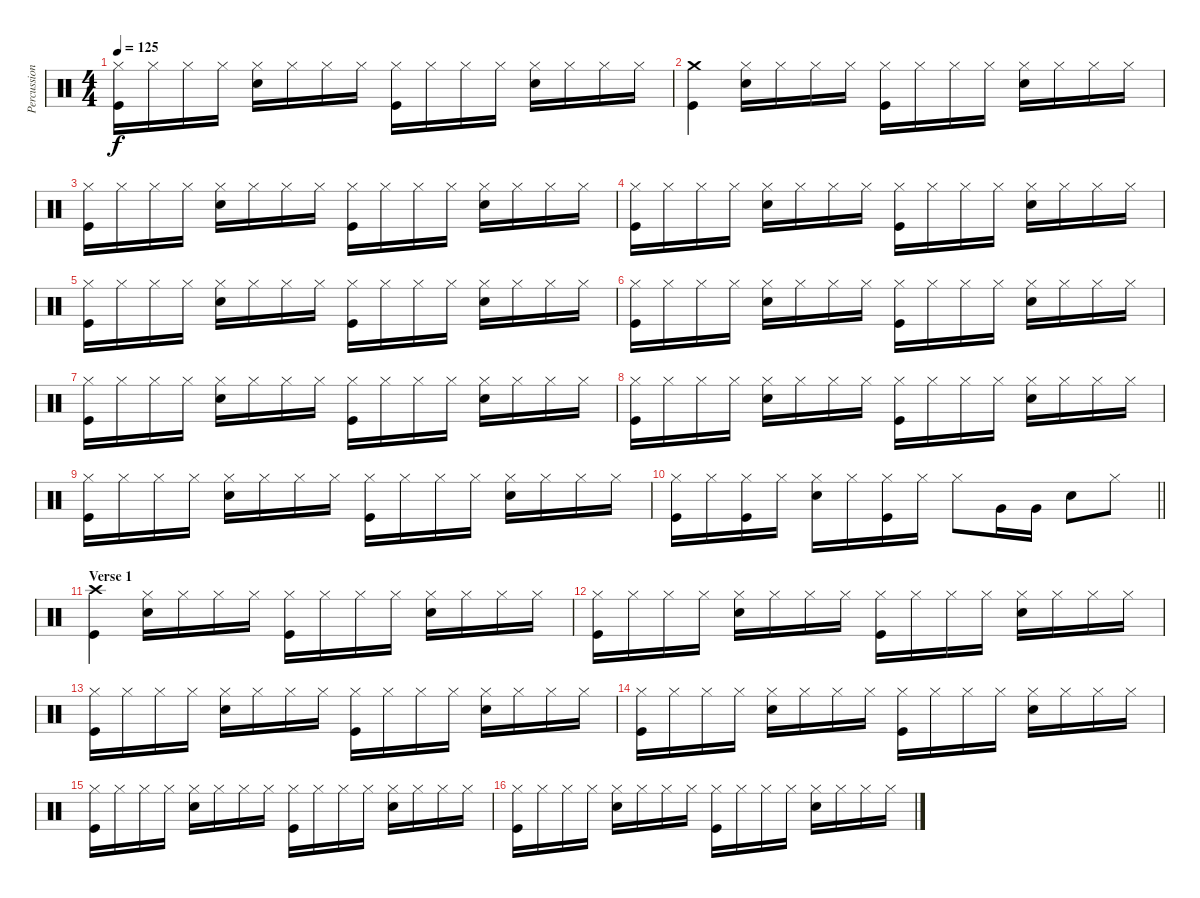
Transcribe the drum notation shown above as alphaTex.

\track ("Percussion" "Percussion") {instrument percussion}
\staff {score}
\articulation defaults
\ts (4 4)
\tempo 125
\clef neutral
\ks c
("Kick (hit)" "Hi-Hat (closed)").16{dy f} "Hi-Hat (closed)".16 "Hi-Hat (closed)".16 "Hi-Hat (closed)".16 ("Hi-Hat (closed)" "Snare (hit) 2").16 "Hi-Hat (closed)".16 "Hi-Hat (closed)".16 "Hi-Hat (closed)".16 ("Kick (hit)" "Hi-Hat (closed)").16 "Hi-Hat (closed)".16 "Hi-Hat (closed)".16 "Hi-Hat (closed)".16 ("Hi-Hat (closed)" "Snare (hit) 2").16 "Hi-Hat (closed)".16 "Hi-Hat (closed)".16 "Hi-Hat (closed)".16 |
("Kick (hit)" "Crash medium (hit)").4 ("Hi-Hat (closed)" "Snare (hit) 2").16 "Hi-Hat (closed)".16 "Hi-Hat (closed)".16 "Hi-Hat (closed)".16 ("Kick (hit)" "Hi-Hat (closed)").16 "Hi-Hat (closed)".16 "Hi-Hat (closed)".16 "Hi-Hat (closed)".16 ("Hi-Hat (closed)" "Snare (hit) 2").16 "Hi-Hat (closed)".16 "Hi-Hat (closed)".16 "Hi-Hat (closed)".16 |
("Kick (hit)" "Hi-Hat (closed)").16 "Hi-Hat (closed)".16 "Hi-Hat (closed)".16 "Hi-Hat (closed)".16 ("Hi-Hat (closed)" "Snare (hit) 2").16 "Hi-Hat (closed)".16 "Hi-Hat (closed)".16 "Hi-Hat (closed)".16 ("Kick (hit)" "Hi-Hat (closed)").16 "Hi-Hat (closed)".16 "Hi-Hat (closed)".16 "Hi-Hat (closed)".16 ("Hi-Hat (closed)" "Snare (hit) 2").16 "Hi-Hat (closed)".16 "Hi-Hat (closed)".16 "Hi-Hat (closed)".16 |
("Kick (hit)" "Hi-Hat (closed)").16 "Hi-Hat (closed)".16 "Hi-Hat (closed)".16 "Hi-Hat (closed)".16 ("Hi-Hat (closed)" "Snare (hit) 2").16 "Hi-Hat (closed)".16 "Hi-Hat (closed)".16 "Hi-Hat (closed)".16 ("Kick (hit)" "Hi-Hat (closed)").16 "Hi-Hat (closed)".16 "Hi-Hat (closed)".16 "Hi-Hat (closed)".16 ("Hi-Hat (closed)" "Snare (hit) 2").16 "Hi-Hat (closed)".16 "Hi-Hat (closed)".16 "Hi-Hat (closed)".16 |
("Kick (hit)" "Hi-Hat (closed)").16 "Hi-Hat (closed)".16 "Hi-Hat (closed)".16 "Hi-Hat (closed)".16 ("Hi-Hat (closed)" "Snare (hit) 2").16 "Hi-Hat (closed)".16 "Hi-Hat (closed)".16 "Hi-Hat (closed)".16 ("Kick (hit)" "Hi-Hat (closed)").16 "Hi-Hat (closed)".16 "Hi-Hat (closed)".16 "Hi-Hat (closed)".16 ("Hi-Hat (closed)" "Snare (hit) 2").16 "Hi-Hat (closed)".16 "Hi-Hat (closed)".16 "Hi-Hat (closed)".16 |
("Kick (hit)" "Hi-Hat (closed)").16 "Hi-Hat (closed)".16 "Hi-Hat (closed)".16 "Hi-Hat (closed)".16 ("Hi-Hat (closed)" "Snare (hit) 2").16 "Hi-Hat (closed)".16 "Hi-Hat (closed)".16 "Hi-Hat (closed)".16 ("Kick (hit)" "Hi-Hat (closed)").16 "Hi-Hat (closed)".16 "Hi-Hat (closed)".16 "Hi-Hat (closed)".16 ("Hi-Hat (closed)" "Snare (hit) 2").16 "Hi-Hat (closed)".16 "Hi-Hat (closed)".16 "Hi-Hat (closed)".16 |
("Kick (hit)" "Hi-Hat (closed)").16 "Hi-Hat (closed)".16 "Hi-Hat (closed)".16 "Hi-Hat (closed)".16 ("Hi-Hat (closed)" "Snare (hit) 2").16 "Hi-Hat (closed)".16 "Hi-Hat (closed)".16 "Hi-Hat (closed)".16 ("Kick (hit)" "Hi-Hat (closed)").16 "Hi-Hat (closed)".16 "Hi-Hat (closed)".16 "Hi-Hat (closed)".16 ("Hi-Hat (closed)" "Snare (hit) 2").16 "Hi-Hat (closed)".16 "Hi-Hat (closed)".16 "Hi-Hat (closed)".16 |
("Kick (hit)" "Hi-Hat (closed)").16 "Hi-Hat (closed)".16 "Hi-Hat (closed)".16 "Hi-Hat (closed)".16 ("Hi-Hat (closed)" "Snare (hit) 2").16 "Hi-Hat (closed)".16 "Hi-Hat (closed)".16 "Hi-Hat (closed)".16 ("Kick (hit)" "Hi-Hat (closed)").16 "Hi-Hat (closed)".16 "Hi-Hat (closed)".16 "Hi-Hat (closed)".16 ("Hi-Hat (closed)" "Snare (hit) 2").16 "Hi-Hat (closed)".16 "Hi-Hat (closed)".16 "Hi-Hat (closed)".16 |
("Kick (hit)" "Hi-Hat (closed)").16 "Hi-Hat (closed)".16 "Hi-Hat (closed)".16 "Hi-Hat (closed)".16 ("Hi-Hat (closed)" "Snare (hit) 2").16 "Hi-Hat (closed)".16 "Hi-Hat (closed)".16 "Hi-Hat (closed)".16 ("Kick (hit)" "Hi-Hat (closed)").16 "Hi-Hat (closed)".16 "Hi-Hat (closed)".16 "Hi-Hat (closed)".16 ("Hi-Hat (closed)" "Snare (hit) 2").16 "Hi-Hat (closed)".16 "Hi-Hat (closed)".16 "Hi-Hat (closed)".16 |
\barLineRight lightlight
("Kick (hit)" "Hi-Hat (closed)").16 "Hi-Hat (closed)".16 ("Kick (hit)" "Hi-Hat (closed)").16 "Hi-Hat (closed)".16 ("Hi-Hat (closed)" "Snare (hit) 2").16 "Hi-Hat (closed)".16 ("Kick (hit)" "Hi-Hat (closed)").16 "Hi-Hat (closed)".16 "Hi-Hat (closed)".8 "Very Low Tom (hit)".16 "Very Low Tom (hit)".16 "Snare (hit) 2".8 "Hi-Hat (closed)".8 |
\section ("" "Verse 1")
("Kick (hit)" "Crash high (hit)").4 ("Hi-Hat (closed)" "Snare (hit) 2").16 "Hi-Hat (closed)".16 "Hi-Hat (closed)".16 "Hi-Hat (closed)".16 ("Kick (hit)" "Hi-Hat (closed)").16 "Hi-Hat (closed)".16 "Hi-Hat (closed)".16 "Hi-Hat (closed)".16 ("Hi-Hat (closed)" "Snare (hit) 2").16 "Hi-Hat (closed)".16 "Hi-Hat (closed)".16 "Hi-Hat (closed)".16 |
("Kick (hit)" "Hi-Hat (closed)").16 "Hi-Hat (closed)".16 "Hi-Hat (closed)".16 "Hi-Hat (closed)".16 ("Hi-Hat (closed)" "Snare (hit) 2").16 "Hi-Hat (closed)".16 "Hi-Hat (closed)".16 "Hi-Hat (closed)".16 ("Kick (hit)" "Hi-Hat (closed)").16 "Hi-Hat (closed)".16 "Hi-Hat (closed)".16 "Hi-Hat (closed)".16 ("Hi-Hat (closed)" "Snare (hit) 2").16 "Hi-Hat (closed)".16 "Hi-Hat (closed)".16 "Hi-Hat (closed)".16 |
("Kick (hit)" "Hi-Hat (closed)").16 "Hi-Hat (closed)".16 "Hi-Hat (closed)".16 "Hi-Hat (closed)".16 ("Hi-Hat (closed)" "Snare (hit) 2").16 "Hi-Hat (closed)".16 "Hi-Hat (closed)".16 "Hi-Hat (closed)".16 ("Kick (hit)" "Hi-Hat (closed)").16 "Hi-Hat (closed)".16 "Hi-Hat (closed)".16 "Hi-Hat (closed)".16 ("Hi-Hat (closed)" "Snare (hit) 2").16 "Hi-Hat (closed)".16 "Hi-Hat (closed)".16 "Hi-Hat (closed)".16 |
("Kick (hit)" "Hi-Hat (closed)").16 "Hi-Hat (closed)".16 "Hi-Hat (closed)".16 "Hi-Hat (closed)".16 ("Hi-Hat (closed)" "Snare (hit) 2").16 "Hi-Hat (closed)".16 "Hi-Hat (closed)".16 "Hi-Hat (closed)".16 ("Kick (hit)" "Hi-Hat (closed)").16 "Hi-Hat (closed)".16 "Hi-Hat (closed)".16 "Hi-Hat (closed)".16 ("Hi-Hat (closed)" "Snare (hit) 2").16 "Hi-Hat (closed)".16 "Hi-Hat (closed)".16 "Hi-Hat (closed)".16 |
("Kick (hit)" "Hi-Hat (closed)").16 "Hi-Hat (closed)".16 "Hi-Hat (closed)".16 "Hi-Hat (closed)".16 ("Hi-Hat (closed)" "Snare (hit) 2").16 "Hi-Hat (closed)".16 "Hi-Hat (closed)".16 "Hi-Hat (closed)".16 ("Kick (hit)" "Hi-Hat (closed)").16 "Hi-Hat (closed)".16 "Hi-Hat (closed)".16 "Hi-Hat (closed)".16 ("Hi-Hat (closed)" "Snare (hit) 2").16 "Hi-Hat (closed)".16 "Hi-Hat (closed)".16 "Hi-Hat (closed)".16 |
("Kick (hit)" "Hi-Hat (closed)").16 "Hi-Hat (closed)".16 "Hi-Hat (closed)".16 "Hi-Hat (closed)".16 ("Hi-Hat (closed)" "Snare (hit) 2").16 "Hi-Hat (closed)".16 "Hi-Hat (closed)".16 "Hi-Hat (closed)".16 ("Kick (hit)" "Hi-Hat (closed)").16 "Hi-Hat (closed)".16 "Hi-Hat (closed)".16 "Hi-Hat (closed)".16 ("Hi-Hat (closed)" "Snare (hit) 2").16 "Hi-Hat (closed)".16 "Hi-Hat (closed)".16 "Hi-Hat (closed)".16
